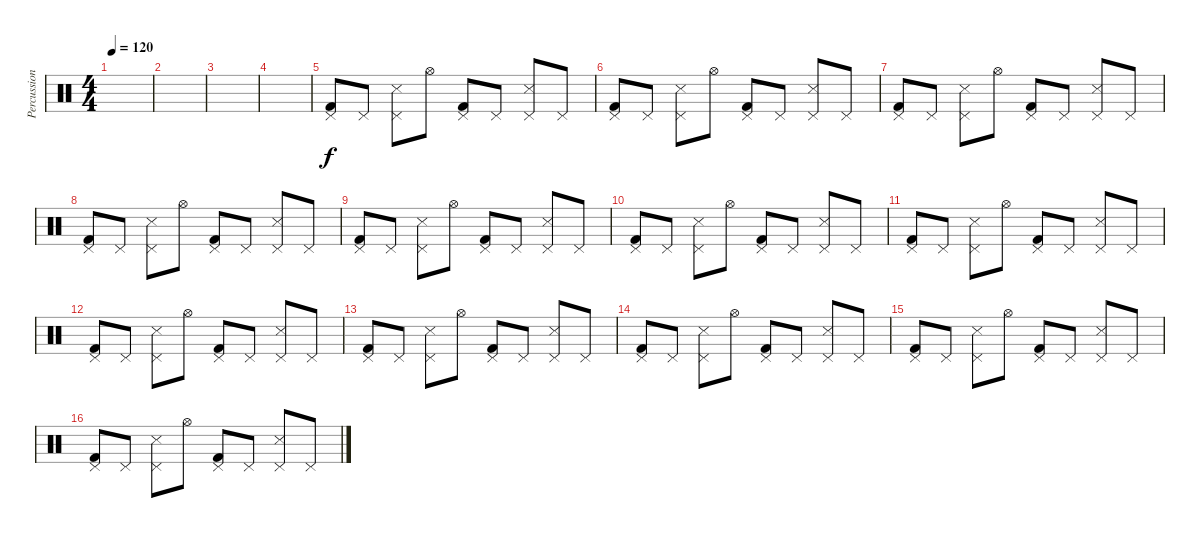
\track ("Percussion" "Percussion") {instrument percussion}
\staff {score}
\articulation defaults
\ts (4 4)
\tempo 120
\clef neutral
\ks c
|
|
|
|
("Kick (hit) 2" "Pedal Hi-Hat (hit)").8 "Pedal Hi-Hat (hit)".8 ("Snare (side stick) 3" "Pedal Hi-Hat (hit)").8 "Hi-Hat (open)".8 ("Kick (hit) 2" "Pedal Hi-Hat (hit)").8 "Pedal Hi-Hat (hit)".8 ("Snare (side stick) 3" "Pedal Hi-Hat (hit)").8 "Pedal Hi-Hat (hit)".8 |
("Kick (hit) 2" "Pedal Hi-Hat (hit)").8 "Pedal Hi-Hat (hit)".8 ("Snare (side stick) 3" "Pedal Hi-Hat (hit)").8 "Hi-Hat (open)".8 ("Kick (hit) 2" "Pedal Hi-Hat (hit)").8 "Pedal Hi-Hat (hit)".8 ("Snare (side stick) 3" "Pedal Hi-Hat (hit)").8 "Pedal Hi-Hat (hit)".8 |
("Kick (hit) 2" "Pedal Hi-Hat (hit)").8 "Pedal Hi-Hat (hit)".8 ("Snare (side stick) 3" "Pedal Hi-Hat (hit)").8 "Hi-Hat (open)".8 ("Kick (hit) 2" "Pedal Hi-Hat (hit)").8 "Pedal Hi-Hat (hit)".8 ("Snare (side stick) 3" "Pedal Hi-Hat (hit)").8 "Pedal Hi-Hat (hit)".8 |
("Kick (hit) 2" "Pedal Hi-Hat (hit)").8 "Pedal Hi-Hat (hit)".8 ("Snare (side stick) 3" "Pedal Hi-Hat (hit)").8 "Hi-Hat (open)".8 ("Kick (hit) 2" "Pedal Hi-Hat (hit)").8 "Pedal Hi-Hat (hit)".8 ("Snare (side stick) 3" "Pedal Hi-Hat (hit)").8 "Pedal Hi-Hat (hit)".8 |
("Kick (hit) 2" "Pedal Hi-Hat (hit)").8 "Pedal Hi-Hat (hit)".8 ("Snare (side stick) 3" "Pedal Hi-Hat (hit)").8 "Hi-Hat (open)".8 ("Kick (hit) 2" "Pedal Hi-Hat (hit)").8 "Pedal Hi-Hat (hit)".8 ("Snare (side stick) 3" "Pedal Hi-Hat (hit)").8 "Pedal Hi-Hat (hit)".8 |
("Kick (hit) 2" "Pedal Hi-Hat (hit)").8 "Pedal Hi-Hat (hit)".8 ("Snare (side stick) 3" "Pedal Hi-Hat (hit)").8 "Hi-Hat (open)".8 ("Kick (hit) 2" "Pedal Hi-Hat (hit)").8 "Pedal Hi-Hat (hit)".8 ("Snare (side stick) 3" "Pedal Hi-Hat (hit)").8 "Pedal Hi-Hat (hit)".8 |
("Kick (hit) 2" "Pedal Hi-Hat (hit)").8 "Pedal Hi-Hat (hit)".8 ("Snare (side stick) 3" "Pedal Hi-Hat (hit)").8 "Hi-Hat (open)".8 ("Kick (hit) 2" "Pedal Hi-Hat (hit)").8 "Pedal Hi-Hat (hit)".8 ("Snare (side stick) 3" "Pedal Hi-Hat (hit)").8 "Pedal Hi-Hat (hit)".8 |
("Kick (hit) 2" "Pedal Hi-Hat (hit)").8 "Pedal Hi-Hat (hit)".8 ("Snare (side stick) 3" "Pedal Hi-Hat (hit)").8 "Hi-Hat (open)".8 ("Kick (hit) 2" "Pedal Hi-Hat (hit)").8 "Pedal Hi-Hat (hit)".8 ("Snare (side stick) 3" "Pedal Hi-Hat (hit)").8 "Pedal Hi-Hat (hit)".8 |
("Kick (hit) 2" "Pedal Hi-Hat (hit)").8 "Pedal Hi-Hat (hit)".8 ("Snare (side stick) 3" "Pedal Hi-Hat (hit)").8 "Hi-Hat (open)".8 ("Kick (hit) 2" "Pedal Hi-Hat (hit)").8 "Pedal Hi-Hat (hit)".8 ("Snare (side stick) 3" "Pedal Hi-Hat (hit)").8 "Pedal Hi-Hat (hit)".8 |
("Kick (hit) 2" "Pedal Hi-Hat (hit)").8 "Pedal Hi-Hat (hit)".8 ("Snare (side stick) 3" "Pedal Hi-Hat (hit)").8 "Hi-Hat (open)".8 ("Kick (hit) 2" "Pedal Hi-Hat (hit)").8 "Pedal Hi-Hat (hit)".8 ("Snare (side stick) 3" "Pedal Hi-Hat (hit)").8 "Pedal Hi-Hat (hit)".8 |
("Kick (hit) 2" "Pedal Hi-Hat (hit)").8 "Pedal Hi-Hat (hit)".8 ("Snare (side stick) 3" "Pedal Hi-Hat (hit)").8 "Hi-Hat (open)".8 ("Kick (hit) 2" "Pedal Hi-Hat (hit)").8 "Pedal Hi-Hat (hit)".8 ("Snare (side stick) 3" "Pedal Hi-Hat (hit)").8 "Pedal Hi-Hat (hit)".8 |
("Kick (hit) 2" "Pedal Hi-Hat (hit)").8 "Pedal Hi-Hat (hit)".8 ("Snare (side stick) 3" "Pedal Hi-Hat (hit)").8 "Hi-Hat (open)".8 ("Kick (hit) 2" "Pedal Hi-Hat (hit)").8 "Pedal Hi-Hat (hit)".8 ("Snare (side stick) 3" "Pedal Hi-Hat (hit)").8 "Pedal Hi-Hat (hit)".8
